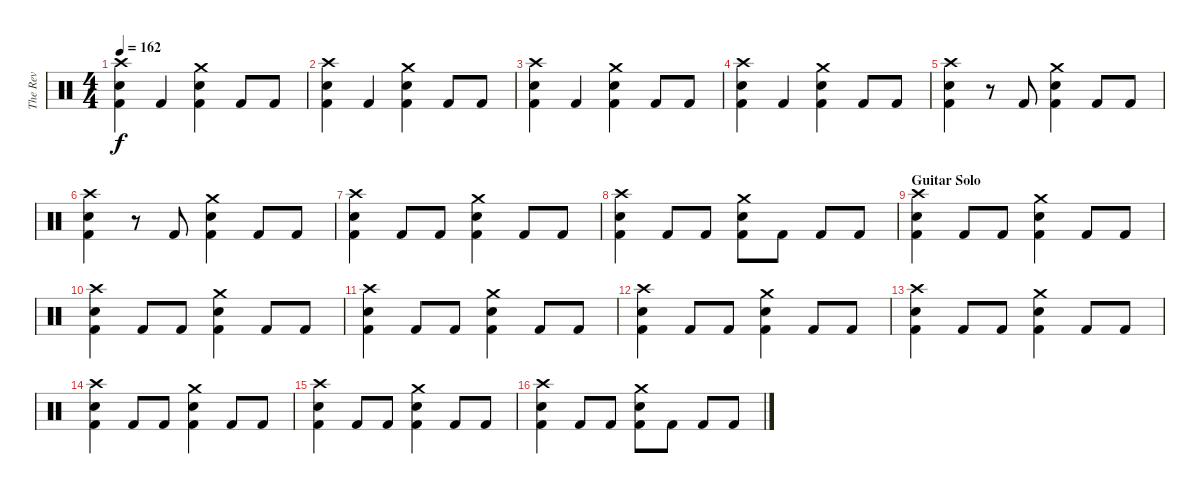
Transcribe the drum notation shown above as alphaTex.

\track ("The Rev" "The Rev") {instrument percussion}
\staff {score}
\articulation defaults
\ts (4 4)
\tempo 162
\clef neutral
\ks c
("Crash high (hit)" "Electric Snare (hit)" "Kick (hit) 2").4{dy f} "Kick (hit) 2".4 ("Crash medium (hit)" "Electric Snare (hit)" "Kick (hit) 2").4 "Kick (hit) 2".8 "Kick (hit) 2".8 |
("Crash high (hit)" "Electric Snare (hit)" "Kick (hit) 2").4 "Kick (hit) 2".4 ("Crash medium (hit)" "Electric Snare (hit)" "Kick (hit) 2").4 "Kick (hit) 2".8 "Kick (hit) 2".8 |
("Crash high (hit)" "Electric Snare (hit)" "Kick (hit) 2").4 "Kick (hit) 2".4 ("Crash medium (hit)" "Electric Snare (hit)" "Kick (hit) 2").4 "Kick (hit) 2".8 "Kick (hit) 2".8 |
("Crash high (hit)" "Electric Snare (hit)" "Kick (hit) 2").4 "Kick (hit) 2".4 ("Crash medium (hit)" "Electric Snare (hit)" "Kick (hit) 2").4 "Kick (hit) 2".8 "Kick (hit) 2".8 |
("Crash high (hit)" "Electric Snare (hit)" "Kick (hit) 2").4 r.8 "Kick (hit) 2".8 ("Crash medium (hit)" "Electric Snare (hit)" "Kick (hit) 2").4 "Kick (hit) 2".8 "Kick (hit) 2".8 |
("Crash high (hit)" "Electric Snare (hit)" "Kick (hit) 2").4 r.8 "Kick (hit) 2".8 ("Crash medium (hit)" "Electric Snare (hit)" "Kick (hit) 2").4 "Kick (hit) 2".8 "Kick (hit) 2".8 |
("Crash high (hit)" "Electric Snare (hit)" "Kick (hit) 2").4 "Kick (hit) 2".8 "Kick (hit) 2".8 ("Crash medium (hit)" "Electric Snare (hit)" "Kick (hit) 2").4 "Kick (hit) 2".8 "Kick (hit) 2".8 |
("Crash high (hit)" "Electric Snare (hit)" "Kick (hit) 2").4 "Kick (hit) 2".8 "Kick (hit) 2".8 ("Crash medium (hit)" "Electric Snare (hit)" "Kick (hit) 2").8 "Kick (hit) 2".8 "Kick (hit) 2".8 "Kick (hit) 2".8 |
\section ("" "Guitar Solo")
("Crash high (hit)" "Electric Snare (hit)" "Kick (hit) 2").4 "Kick (hit) 2".8 "Kick (hit) 2".8 ("Crash medium (hit)" "Electric Snare (hit)" "Kick (hit) 2").4 "Kick (hit) 2".8 "Kick (hit) 2".8 |
("Crash high (hit)" "Electric Snare (hit)" "Kick (hit) 2").4 "Kick (hit) 2".8 "Kick (hit) 2".8 ("Crash medium (hit)" "Electric Snare (hit)" "Kick (hit) 2").4 "Kick (hit) 2".8 "Kick (hit) 2".8 |
("Crash high (hit)" "Electric Snare (hit)" "Kick (hit) 2").4 "Kick (hit) 2".8 "Kick (hit) 2".8 ("Crash medium (hit)" "Electric Snare (hit)" "Kick (hit) 2").4 "Kick (hit) 2".8 "Kick (hit) 2".8 |
("Crash high (hit)" "Electric Snare (hit)" "Kick (hit) 2").4 "Kick (hit) 2".8 "Kick (hit) 2".8 ("Crash medium (hit)" "Electric Snare (hit)" "Kick (hit) 2").4 "Kick (hit) 2".8 "Kick (hit) 2".8 |
("Crash high (hit)" "Electric Snare (hit)" "Kick (hit) 2").4 "Kick (hit) 2".8 "Kick (hit) 2".8 ("Crash medium (hit)" "Electric Snare (hit)" "Kick (hit) 2").4 "Kick (hit) 2".8 "Kick (hit) 2".8 |
("Crash high (hit)" "Electric Snare (hit)" "Kick (hit) 2").4 "Kick (hit) 2".8 "Kick (hit) 2".8 ("Crash medium (hit)" "Electric Snare (hit)" "Kick (hit) 2").4 "Kick (hit) 2".8 "Kick (hit) 2".8 |
("Crash high (hit)" "Electric Snare (hit)" "Kick (hit) 2").4 "Kick (hit) 2".8 "Kick (hit) 2".8 ("Crash medium (hit)" "Electric Snare (hit)" "Kick (hit) 2").4 "Kick (hit) 2".8 "Kick (hit) 2".8 |
("Crash high (hit)" "Electric Snare (hit)" "Kick (hit) 2").4 "Kick (hit) 2".8 "Kick (hit) 2".8 ("Crash medium (hit)" "Electric Snare (hit)" "Kick (hit) 2").8 "Kick (hit) 2".8 "Kick (hit) 2".8 "Kick (hit) 2".8
